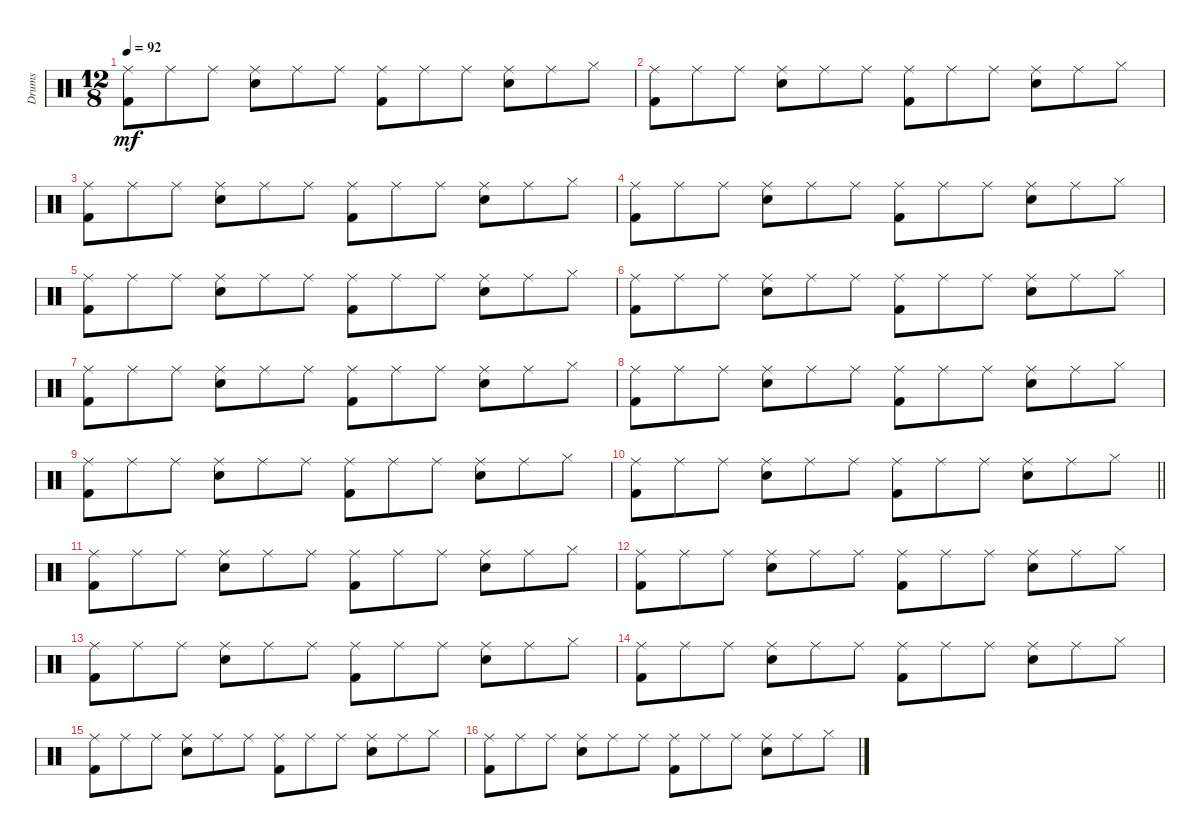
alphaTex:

\track ("Drums" "Drums") {instrument percussion}
\staff {score}
\articulation defaults
\ts (12 8)
\tempo 92
\clef neutral
\ks c
("Ride (middle)" "Kick (hit) 2").8{dy mf} "Ride (middle)".8 "Ride (middle)".8 ("Ride (middle)" "Electric Snare (hit)").8 "Ride (middle)".8 "Ride (middle)".8 ("Ride (middle)" "Kick (hit) 2").8 "Ride (middle)".8 "Ride (middle)".8 ("Ride (middle)" "Electric Snare (hit)").8 "Ride (middle)".8 "Hi-Hat (closed)".8 |
("Ride (middle)" "Kick (hit) 2").8 "Ride (middle)".8 "Ride (middle)".8 ("Ride (middle)" "Electric Snare (hit)").8 "Ride (middle)".8 "Ride (middle)".8 ("Ride (middle)" "Kick (hit) 2").8 "Ride (middle)".8 "Ride (middle)".8 ("Ride (middle)" "Electric Snare (hit)").8 "Ride (middle)".8 "Hi-Hat (closed)".8 |
("Ride (middle)" "Kick (hit) 2").8 "Ride (middle)".8 "Ride (middle)".8 ("Ride (middle)" "Electric Snare (hit)").8 "Ride (middle)".8 "Ride (middle)".8 ("Ride (middle)" "Kick (hit) 2").8 "Ride (middle)".8 "Ride (middle)".8 ("Ride (middle)" "Electric Snare (hit)").8 "Ride (middle)".8 "Hi-Hat (closed)".8 |
("Ride (middle)" "Kick (hit) 2").8 "Ride (middle)".8 "Ride (middle)".8 ("Ride (middle)" "Electric Snare (hit)").8 "Ride (middle)".8 "Ride (middle)".8 ("Ride (middle)" "Kick (hit) 2").8 "Ride (middle)".8 "Ride (middle)".8 ("Ride (middle)" "Electric Snare (hit)").8 "Ride (middle)".8 "Hi-Hat (closed)".8 |
("Ride (middle)" "Kick (hit) 2").8 "Ride (middle)".8 "Ride (middle)".8 ("Ride (middle)" "Electric Snare (hit)").8 "Ride (middle)".8 "Ride (middle)".8 ("Ride (middle)" "Kick (hit) 2").8 "Ride (middle)".8 "Ride (middle)".8 ("Ride (middle)" "Electric Snare (hit)").8 "Ride (middle)".8 "Hi-Hat (closed)".8 |
("Ride (middle)" "Kick (hit) 2").8 "Ride (middle)".8 "Ride (middle)".8 ("Ride (middle)" "Electric Snare (hit)").8 "Ride (middle)".8 "Ride (middle)".8 ("Ride (middle)" "Kick (hit) 2").8 "Ride (middle)".8 "Ride (middle)".8 ("Ride (middle)" "Electric Snare (hit)").8 "Ride (middle)".8 "Hi-Hat (closed)".8 |
("Ride (middle)" "Kick (hit) 2").8 "Ride (middle)".8 "Ride (middle)".8 ("Ride (middle)" "Electric Snare (hit)").8 "Ride (middle)".8 "Ride (middle)".8 ("Ride (middle)" "Kick (hit) 2").8 "Ride (middle)".8 "Ride (middle)".8 ("Ride (middle)" "Electric Snare (hit)").8 "Ride (middle)".8 "Hi-Hat (closed)".8 |
("Ride (middle)" "Kick (hit) 2").8 "Ride (middle)".8 "Ride (middle)".8 ("Ride (middle)" "Electric Snare (hit)").8 "Ride (middle)".8 "Ride (middle)".8 ("Ride (middle)" "Kick (hit) 2").8 "Ride (middle)".8 "Ride (middle)".8 ("Ride (middle)" "Electric Snare (hit)").8 "Ride (middle)".8 "Hi-Hat (closed)".8 |
("Ride (middle)" "Kick (hit) 2").8 "Ride (middle)".8 "Ride (middle)".8 ("Ride (middle)" "Electric Snare (hit)").8 "Ride (middle)".8 "Ride (middle)".8 ("Ride (middle)" "Kick (hit) 2").8 "Ride (middle)".8 "Ride (middle)".8 ("Ride (middle)" "Electric Snare (hit)").8 "Ride (middle)".8 "Hi-Hat (closed)".8 |
\barLineRight lightlight
("Ride (middle)" "Kick (hit) 2").8 "Ride (middle)".8 "Ride (middle)".8 ("Ride (middle)" "Electric Snare (hit)").8 "Ride (middle)".8 "Ride (middle)".8 ("Ride (middle)" "Kick (hit) 2").8 "Ride (middle)".8 "Ride (middle)".8 ("Ride (middle)" "Electric Snare (hit)").8 "Ride (middle)".8 "Hi-Hat (closed)".8 |
("Ride (middle)" "Kick (hit) 2").8 "Ride (middle)".8 "Ride (middle)".8 ("Ride (middle)" "Electric Snare (hit)").8 "Ride (middle)".8 "Ride (middle)".8 ("Ride (middle)" "Kick (hit) 2").8 "Ride (middle)".8 "Ride (middle)".8 ("Ride (middle)" "Electric Snare (hit)").8 "Ride (middle)".8 "Hi-Hat (closed)".8 |
("Ride (middle)" "Kick (hit) 2").8 "Ride (middle)".8 "Ride (middle)".8 ("Ride (middle)" "Electric Snare (hit)").8 "Ride (middle)".8 "Ride (middle)".8 ("Ride (middle)" "Kick (hit) 2").8 "Ride (middle)".8 "Ride (middle)".8 ("Ride (middle)" "Electric Snare (hit)").8 "Ride (middle)".8 "Hi-Hat (closed)".8 |
("Ride (middle)" "Kick (hit) 2").8 "Ride (middle)".8 "Ride (middle)".8 ("Ride (middle)" "Electric Snare (hit)").8 "Ride (middle)".8 "Ride (middle)".8 ("Ride (middle)" "Kick (hit) 2").8 "Ride (middle)".8 "Ride (middle)".8 ("Ride (middle)" "Electric Snare (hit)").8 "Ride (middle)".8 "Hi-Hat (closed)".8 |
("Ride (middle)" "Kick (hit) 2").8 "Ride (middle)".8 "Ride (middle)".8 ("Ride (middle)" "Electric Snare (hit)").8 "Ride (middle)".8 "Ride (middle)".8 ("Ride (middle)" "Kick (hit) 2").8 "Ride (middle)".8 "Ride (middle)".8 ("Ride (middle)" "Electric Snare (hit)").8 "Ride (middle)".8 "Hi-Hat (closed)".8 |
("Ride (middle)" "Kick (hit) 2").8 "Ride (middle)".8 "Ride (middle)".8 ("Ride (middle)" "Electric Snare (hit)").8 "Ride (middle)".8 "Ride (middle)".8 ("Ride (middle)" "Kick (hit) 2").8 "Ride (middle)".8 "Ride (middle)".8 ("Ride (middle)" "Electric Snare (hit)").8 "Ride (middle)".8 "Hi-Hat (closed)".8 |
("Ride (middle)" "Kick (hit) 2").8 "Ride (middle)".8 "Ride (middle)".8 ("Ride (middle)" "Electric Snare (hit)").8 "Ride (middle)".8 "Ride (middle)".8 ("Ride (middle)" "Kick (hit) 2").8 "Ride (middle)".8 "Ride (middle)".8 ("Ride (middle)" "Electric Snare (hit)").8 "Ride (middle)".8 "Hi-Hat (closed)".8
